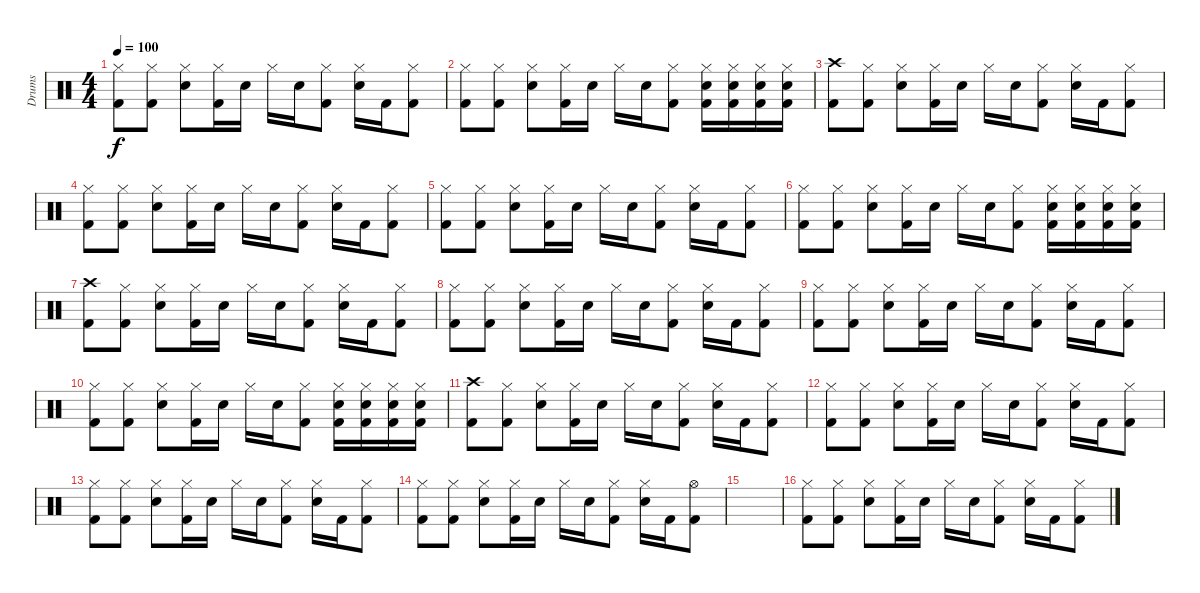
\track ("Drums" "Drums") {instrument percussion}
\staff {score}
\articulation defaults
\ts (4 4)
\tempo 100
\clef neutral
\ks c
("Hi-Hat (closed)" "Kick (hit) 2").8{dy f} ("Hi-Hat (closed)" "Kick (hit) 2").8 ("Hi-Hat (closed)" "Snare (hit) 2").8 ("Hi-Hat (closed)" "Kick (hit) 2").16 "Snare (hit) 2".16 "Hi-Hat (closed)".16 "Snare (hit) 2".16 ("Hi-Hat (closed)" "Kick (hit) 2").8 ("Hi-Hat (closed)" "Snare (hit) 2").16 "Kick (hit) 2".16 ("Hi-Hat (closed)" "Kick (hit) 2").8 |
("Hi-Hat (closed)" "Kick (hit) 2").8 ("Hi-Hat (closed)" "Kick (hit) 2").8 ("Hi-Hat (closed)" "Snare (hit) 2").8 ("Hi-Hat (closed)" "Kick (hit) 2").16 "Snare (hit) 2".16 "Hi-Hat (closed)".16 "Snare (hit) 2".16 ("Hi-Hat (closed)" "Kick (hit) 2").8 ("Hi-Hat (closed)" "Snare (hit) 2" "Kick (hit) 2").16 ("Hi-Hat (closed)" "Snare (hit) 2" "Kick (hit) 2").16 ("Hi-Hat (closed)" "Snare (hit) 2" "Kick (hit) 2").16 ("Hi-Hat (closed)" "Snare (hit) 2" "Kick (hit) 2").16 |
("Crash high (hit)" "Kick (hit) 2").8 ("Hi-Hat (closed)" "Kick (hit) 2").8 ("Hi-Hat (closed)" "Snare (hit) 2").8 ("Hi-Hat (closed)" "Kick (hit) 2").16 "Snare (hit) 2".16 "Hi-Hat (closed)".16 "Snare (hit) 2".16 ("Hi-Hat (closed)" "Kick (hit) 2").8 ("Hi-Hat (closed)" "Snare (hit) 2").16 "Kick (hit) 2".16 ("Hi-Hat (closed)" "Kick (hit) 2").8 |
("Hi-Hat (closed)" "Kick (hit) 2").8 ("Hi-Hat (closed)" "Kick (hit) 2").8 ("Hi-Hat (closed)" "Snare (hit) 2").8 ("Hi-Hat (closed)" "Kick (hit) 2").16 "Snare (hit) 2".16 "Hi-Hat (closed)".16 "Snare (hit) 2".16 ("Hi-Hat (closed)" "Kick (hit) 2").8 ("Hi-Hat (closed)" "Snare (hit) 2").16 "Kick (hit) 2".16 ("Hi-Hat (closed)" "Kick (hit) 2").8 |
("Hi-Hat (closed)" "Kick (hit) 2").8 ("Hi-Hat (closed)" "Kick (hit) 2").8 ("Hi-Hat (closed)" "Snare (hit) 2").8 ("Hi-Hat (closed)" "Kick (hit) 2").16 "Snare (hit) 2".16 "Hi-Hat (closed)".16 "Snare (hit) 2".16 ("Hi-Hat (closed)" "Kick (hit) 2").8 ("Hi-Hat (closed)" "Snare (hit) 2").16 "Kick (hit) 2".16 ("Hi-Hat (closed)" "Kick (hit) 2").8 |
("Hi-Hat (closed)" "Kick (hit) 2").8 ("Hi-Hat (closed)" "Kick (hit) 2").8 ("Hi-Hat (closed)" "Snare (hit) 2").8 ("Hi-Hat (closed)" "Kick (hit) 2").16 "Snare (hit) 2".16 "Hi-Hat (closed)".16 "Snare (hit) 2".16 ("Hi-Hat (closed)" "Kick (hit) 2").8 ("Hi-Hat (closed)" "Snare (hit) 2" "Kick (hit) 2").16 ("Hi-Hat (closed)" "Snare (hit) 2" "Kick (hit) 2").16 ("Hi-Hat (closed)" "Snare (hit) 2" "Kick (hit) 2").16 ("Hi-Hat (closed)" "Snare (hit) 2" "Kick (hit) 2").16 |
("Crash high (hit)" "Kick (hit) 2").8 ("Hi-Hat (closed)" "Kick (hit) 2").8 ("Hi-Hat (closed)" "Snare (hit) 2").8 ("Hi-Hat (closed)" "Kick (hit) 2").16 "Snare (hit) 2".16 "Hi-Hat (closed)".16 "Snare (hit) 2".16 ("Hi-Hat (closed)" "Kick (hit) 2").8 ("Hi-Hat (closed)" "Snare (hit) 2").16 "Kick (hit) 2".16 ("Hi-Hat (closed)" "Kick (hit) 2").8 |
("Hi-Hat (closed)" "Kick (hit) 2").8 ("Hi-Hat (closed)" "Kick (hit) 2").8 ("Hi-Hat (closed)" "Snare (hit) 2").8 ("Hi-Hat (closed)" "Kick (hit) 2").16 "Snare (hit) 2".16 "Hi-Hat (closed)".16 "Snare (hit) 2".16 ("Hi-Hat (closed)" "Kick (hit) 2").8 ("Hi-Hat (closed)" "Snare (hit) 2").16 "Kick (hit) 2".16 ("Hi-Hat (closed)" "Kick (hit) 2").8 |
("Hi-Hat (closed)" "Kick (hit) 2").8 ("Hi-Hat (closed)" "Kick (hit) 2").8 ("Hi-Hat (closed)" "Snare (hit) 2").8 ("Hi-Hat (closed)" "Kick (hit) 2").16 "Snare (hit) 2".16 "Hi-Hat (closed)".16 "Snare (hit) 2".16 ("Hi-Hat (closed)" "Kick (hit) 2").8 ("Hi-Hat (closed)" "Snare (hit) 2").16 "Kick (hit) 2".16 ("Hi-Hat (closed)" "Kick (hit) 2").8 |
("Hi-Hat (closed)" "Kick (hit) 2").8 ("Hi-Hat (closed)" "Kick (hit) 2").8 ("Hi-Hat (closed)" "Snare (hit) 2").8 ("Hi-Hat (closed)" "Kick (hit) 2").16 "Snare (hit) 2".16 "Hi-Hat (closed)".16 "Snare (hit) 2".16 ("Hi-Hat (closed)" "Kick (hit) 2").8 ("Hi-Hat (closed)" "Snare (hit) 2" "Kick (hit) 2").16 ("Hi-Hat (closed)" "Snare (hit) 2" "Kick (hit) 2").16 ("Hi-Hat (closed)" "Snare (hit) 2" "Kick (hit) 2").16 ("Hi-Hat (closed)" "Snare (hit) 2" "Kick (hit) 2").16 |
("Crash high (hit)" "Kick (hit) 2").8 ("Hi-Hat (closed)" "Kick (hit) 2").8 ("Hi-Hat (closed)" "Snare (hit) 2").8 ("Hi-Hat (closed)" "Kick (hit) 2").16 "Snare (hit) 2".16 "Hi-Hat (closed)".16 "Snare (hit) 2".16 ("Hi-Hat (closed)" "Kick (hit) 2").8 ("Hi-Hat (closed)" "Snare (hit) 2").16 "Kick (hit) 2".16 ("Hi-Hat (closed)" "Kick (hit) 2").8 |
("Hi-Hat (closed)" "Kick (hit) 2").8 ("Hi-Hat (closed)" "Kick (hit) 2").8 ("Hi-Hat (closed)" "Snare (hit) 2").8 ("Hi-Hat (closed)" "Kick (hit) 2").16 "Snare (hit) 2".16 "Hi-Hat (closed)".16 "Snare (hit) 2".16 ("Hi-Hat (closed)" "Kick (hit) 2").8 ("Hi-Hat (closed)" "Snare (hit) 2").16 "Kick (hit) 2".16 ("Hi-Hat (closed)" "Kick (hit) 2").8 |
("Hi-Hat (closed)" "Kick (hit) 2").8 ("Hi-Hat (closed)" "Kick (hit) 2").8 ("Hi-Hat (closed)" "Snare (hit) 2").8 ("Hi-Hat (closed)" "Kick (hit) 2").16 "Snare (hit) 2".16 "Hi-Hat (closed)".16 "Snare (hit) 2".16 ("Hi-Hat (closed)" "Kick (hit) 2").8 ("Hi-Hat (closed)" "Snare (hit) 2").16 "Kick (hit) 2".16 ("Hi-Hat (closed)" "Kick (hit) 2").8 |
("Hi-Hat (closed)" "Kick (hit) 2").8 ("Hi-Hat (closed)" "Kick (hit) 2").8 ("Hi-Hat (closed)" "Snare (hit) 2").8 ("Hi-Hat (closed)" "Kick (hit) 2").16 "Snare (hit) 2".16 "Hi-Hat (closed)".16 "Snare (hit) 2".16 ("Hi-Hat (closed)" "Kick (hit) 2").8 ("Hi-Hat (closed)" "Snare (hit) 2").16 "Kick (hit) 2".16 ("Hi-Hat (open)" "Kick (hit) 2").8 |
|
("Hi-Hat (closed)" "Kick (hit) 2").8 ("Hi-Hat (closed)" "Kick (hit) 2").8 ("Hi-Hat (closed)" "Snare (hit) 2").8 ("Hi-Hat (closed)" "Kick (hit) 2").16 "Snare (hit) 2".16 "Hi-Hat (closed)".16 "Snare (hit) 2".16 ("Hi-Hat (closed)" "Kick (hit) 2").8 ("Hi-Hat (closed)" "Snare (hit) 2").16 "Kick (hit) 2".16 ("Hi-Hat (closed)" "Kick (hit) 2").8
